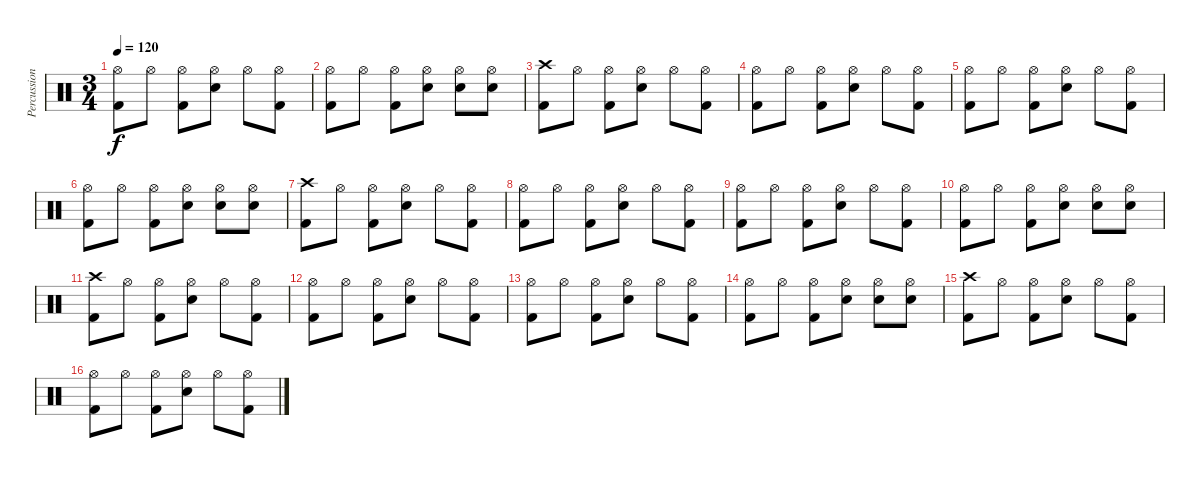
\track ("Percussion" "Percussion") {instrument percussion}
\staff {score}
\articulation defaults
\ts (3 4)
\tempo 120
\clef neutral
\ks c
("Hi-Hat (open)" "Kick (hit) 2").8{dy f} "Hi-Hat (open)".8 ("Hi-Hat (open)" "Kick (hit) 2").8 ("Hi-Hat (open)" "Snare (hit) 2").8 "Hi-Hat (open)".8 ("Hi-Hat (open)" "Kick (hit) 2").8 |
("Hi-Hat (open)" "Kick (hit) 2").8 "Hi-Hat (open)".8 ("Hi-Hat (open)" "Kick (hit) 2").8 ("Hi-Hat (open)" "Snare (hit) 2").8 ("Hi-Hat (open)" "Snare (hit) 2").8 ("Hi-Hat (open)" "Snare (hit) 2").8 |
\section ("" "")
("Crash high (hit)" "Kick (hit) 2").8 "Hi-Hat (open)".8 ("Hi-Hat (open)" "Kick (hit) 2").8 ("Hi-Hat (open)" "Snare (hit) 2").8 "Hi-Hat (open)".8 ("Hi-Hat (open)" "Kick (hit) 2").8 |
("Hi-Hat (open)" "Kick (hit) 2").8 "Hi-Hat (open)".8 ("Hi-Hat (open)" "Kick (hit) 2").8 ("Hi-Hat (open)" "Snare (hit) 2").8 "Hi-Hat (open)".8 ("Hi-Hat (open)" "Kick (hit) 2").8 |
("Hi-Hat (open)" "Kick (hit) 2").8 "Hi-Hat (open)".8 ("Hi-Hat (open)" "Kick (hit) 2").8 ("Hi-Hat (open)" "Snare (hit) 2").8 "Hi-Hat (open)".8 ("Hi-Hat (open)" "Kick (hit) 2").8 |
("Hi-Hat (open)" "Kick (hit) 2").8 "Hi-Hat (open)".8 ("Hi-Hat (open)" "Kick (hit) 2").8 ("Hi-Hat (open)" "Snare (hit) 2").8 ("Hi-Hat (open)" "Snare (hit) 2").8 ("Hi-Hat (open)" "Snare (hit) 2").8 |
("Crash high (hit)" "Kick (hit) 2").8 "Hi-Hat (open)".8 ("Hi-Hat (open)" "Kick (hit) 2").8 ("Hi-Hat (open)" "Snare (hit) 2").8 "Hi-Hat (open)".8 ("Hi-Hat (open)" "Kick (hit) 2").8 |
("Hi-Hat (open)" "Kick (hit) 2").8 "Hi-Hat (open)".8 ("Hi-Hat (open)" "Kick (hit) 2").8 ("Hi-Hat (open)" "Snare (hit) 2").8 "Hi-Hat (open)".8 ("Hi-Hat (open)" "Kick (hit) 2").8 |
("Hi-Hat (open)" "Kick (hit) 2").8 "Hi-Hat (open)".8 ("Hi-Hat (open)" "Kick (hit) 2").8 ("Hi-Hat (open)" "Snare (hit) 2").8 "Hi-Hat (open)".8 ("Hi-Hat (open)" "Kick (hit) 2").8 |
("Hi-Hat (open)" "Kick (hit) 2").8 "Hi-Hat (open)".8 ("Hi-Hat (open)" "Kick (hit) 2").8 ("Hi-Hat (open)" "Snare (hit) 2").8 ("Hi-Hat (open)" "Snare (hit) 2").8 ("Hi-Hat (open)" "Snare (hit) 2").8 |
("Crash high (hit)" "Kick (hit) 2").8 "Hi-Hat (open)".8 ("Hi-Hat (open)" "Kick (hit) 2").8 ("Hi-Hat (open)" "Snare (hit) 2").8 "Hi-Hat (open)".8 ("Hi-Hat (open)" "Kick (hit) 2").8 |
("Hi-Hat (open)" "Kick (hit) 2").8 "Hi-Hat (open)".8 ("Hi-Hat (open)" "Kick (hit) 2").8 ("Hi-Hat (open)" "Snare (hit) 2").8 "Hi-Hat (open)".8 ("Hi-Hat (open)" "Kick (hit) 2").8 |
("Hi-Hat (open)" "Kick (hit) 2").8 "Hi-Hat (open)".8 ("Hi-Hat (open)" "Kick (hit) 2").8 ("Hi-Hat (open)" "Snare (hit) 2").8 "Hi-Hat (open)".8 ("Hi-Hat (open)" "Kick (hit) 2").8 |
("Hi-Hat (open)" "Kick (hit) 2").8 "Hi-Hat (open)".8 ("Hi-Hat (open)" "Kick (hit) 2").8 ("Hi-Hat (open)" "Snare (hit) 2").8 ("Hi-Hat (open)" "Snare (hit) 2").8 ("Hi-Hat (open)" "Snare (hit) 2").8 |
("Crash high (hit)" "Kick (hit) 2").8 "Hi-Hat (open)".8 ("Hi-Hat (open)" "Kick (hit) 2").8 ("Hi-Hat (open)" "Snare (hit) 2").8 "Hi-Hat (open)".8 ("Hi-Hat (open)" "Kick (hit) 2").8 |
("Hi-Hat (open)" "Kick (hit) 2").8 "Hi-Hat (open)".8 ("Hi-Hat (open)" "Kick (hit) 2").8 ("Hi-Hat (open)" "Snare (hit) 2").8 "Hi-Hat (open)".8 ("Hi-Hat (open)" "Kick (hit) 2").8
